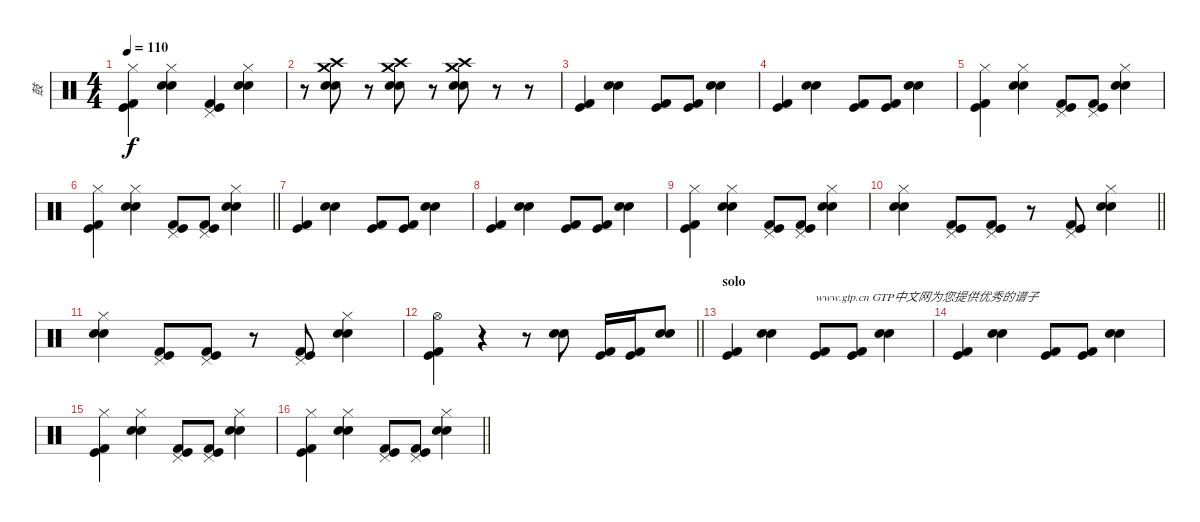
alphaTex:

\track ("鼓" "鼓") {instrument percussion}
\staff {score}
\articulation defaults
\ts (4 4)
\tempo 110
\clef neutral
\ks c
("Kick (hit) 2" "Kick (hit)" "Hi-Hat (closed)").4{dy f} ("Electric Snare (hit)" "Snare (hit) 2" "Hi-Hat (closed)").4 ("Kick (hit) 2" "Kick (hit)" "Pedal Hi-Hat (hit)").4 ("Electric Snare (hit)" "Snare (hit) 2" "Hi-Hat (closed)").4 |
r.8 ("Snare (hit) 2" "Electric Snare (hit)" "Crash high (hit)" "Crash medium (hit)").8 r.8 ("Snare (hit) 2" "Electric Snare (hit)" "Crash high (hit)" "Crash medium (hit)").8 r.8 ("Snare (hit) 2" "Electric Snare (hit)" "Crash high (hit)" "Crash medium (hit)").8 r.8 r.8 |
("Kick (hit) 2" "Kick (hit)").4 ("Electric Snare (hit)" "Snare (hit) 2").4 ("Kick (hit) 2" "Kick (hit)").8 ("Kick (hit) 2" "Kick (hit)").8 ("Electric Snare (hit)" "Snare (hit) 2").4 |
("Kick (hit) 2" "Kick (hit)").4 ("Electric Snare (hit)" "Snare (hit) 2").4 ("Kick (hit) 2" "Kick (hit)").8 ("Kick (hit) 2" "Kick (hit)").8 ("Electric Snare (hit)" "Snare (hit) 2").4 |
("Kick (hit) 2" "Kick (hit)" "Hi-Hat (closed)").4 ("Electric Snare (hit)" "Snare (hit) 2" "Hi-Hat (closed)").4 ("Kick (hit) 2" "Kick (hit)" "Pedal Hi-Hat (hit)").8 ("Kick (hit) 2" "Kick (hit)" "Pedal Hi-Hat (hit)").8 ("Electric Snare (hit)" "Snare (hit) 2" "Hi-Hat (closed)").4 |
\barLineRight lightlight
("Kick (hit) 2" "Kick (hit)" "Hi-Hat (closed)").4 ("Electric Snare (hit)" "Snare (hit) 2" "Hi-Hat (closed)").4 ("Kick (hit) 2" "Kick (hit)" "Pedal Hi-Hat (hit)").8 ("Kick (hit) 2" "Kick (hit)" "Pedal Hi-Hat (hit)").8 ("Electric Snare (hit)" "Snare (hit) 2" "Hi-Hat (closed)").4 |
("Kick (hit) 2" "Kick (hit)").4 ("Electric Snare (hit)" "Snare (hit) 2").4 ("Kick (hit) 2" "Kick (hit)").8 ("Kick (hit) 2" "Kick (hit)").8 ("Electric Snare (hit)" "Snare (hit) 2").4 |
("Kick (hit) 2" "Kick (hit)").4 ("Electric Snare (hit)" "Snare (hit) 2").4 ("Kick (hit) 2" "Kick (hit)").8 ("Kick (hit) 2" "Kick (hit)").8 ("Electric Snare (hit)" "Snare (hit) 2").4 |
("Kick (hit) 2" "Kick (hit)" "Hi-Hat (closed)").4 ("Electric Snare (hit)" "Snare (hit) 2" "Hi-Hat (closed)").4 ("Kick (hit) 2" "Kick (hit)" "Pedal Hi-Hat (hit)").8 ("Kick (hit) 2" "Kick (hit)" "Pedal Hi-Hat (hit)").8 ("Electric Snare (hit)" "Snare (hit) 2" "Hi-Hat (closed)").4 |
\barLineRight lightlight
("Electric Snare (hit)" "Snare (hit) 2" "Hi-Hat (closed)").4 ("Kick (hit) 2" "Kick (hit)" "Pedal Hi-Hat (hit)").8 ("Kick (hit) 2" "Kick (hit)" "Pedal Hi-Hat (hit)").8 r.8 ("Kick (hit) 2" "Kick (hit)" "Pedal Hi-Hat (hit)").8 ("Electric Snare (hit)" "Snare (hit) 2" "Hi-Hat (closed)").4 |
("Electric Snare (hit)" "Snare (hit) 2" "Hi-Hat (closed)").4 ("Kick (hit) 2" "Kick (hit)" "Pedal Hi-Hat (hit)").8 ("Kick (hit) 2" "Kick (hit)" "Pedal Hi-Hat (hit)").8 r.8 ("Kick (hit) 2" "Kick (hit)" "Pedal Hi-Hat (hit)").8 ("Electric Snare (hit)" "Snare (hit) 2" "Hi-Hat (closed)").4 |
\barLineRight lightlight
("Kick (hit)" "Kick (hit) 2" "Hi-Hat (open)").4 r.4 r.8 ("Electric Snare (hit)" "Snare (hit) 2").8 ("Kick (hit)" "Kick (hit) 2").16 ("Kick (hit)" "Kick (hit) 2").16 ("Electric Snare (hit)" "Snare (hit) 2").8 |
\section ("" "solo")
("Kick (hit) 2" "Kick (hit)").4 ("Electric Snare (hit)" "Snare (hit) 2").4 ("Kick (hit) 2" "Kick (hit)").8{txt "www.gtp.cn GTP中文网为您提供优秀的谱子"} ("Kick (hit) 2" "Kick (hit)").8 ("Electric Snare (hit)" "Snare (hit) 2").4 |
("Kick (hit) 2" "Kick (hit)").4 ("Electric Snare (hit)" "Snare (hit) 2").4 ("Kick (hit) 2" "Kick (hit)").8 ("Kick (hit) 2" "Kick (hit)").8 ("Electric Snare (hit)" "Snare (hit) 2").4 |
("Kick (hit) 2" "Kick (hit)" "Hi-Hat (closed)").4 ("Electric Snare (hit)" "Snare (hit) 2" "Hi-Hat (closed)").4 ("Kick (hit) 2" "Kick (hit)" "Pedal Hi-Hat (hit)").8 ("Kick (hit) 2" "Kick (hit)" "Pedal Hi-Hat (hit)").8 ("Electric Snare (hit)" "Snare (hit) 2" "Hi-Hat (closed)").4 |
\barLineRight lightlight
("Kick (hit) 2" "Kick (hit)" "Hi-Hat (closed)").4 ("Electric Snare (hit)" "Snare (hit) 2" "Hi-Hat (closed)").4 ("Kick (hit) 2" "Kick (hit)" "Pedal Hi-Hat (hit)").8 ("Kick (hit) 2" "Kick (hit)" "Pedal Hi-Hat (hit)").8 ("Electric Snare (hit)" "Snare (hit) 2" "Hi-Hat (closed)").4
